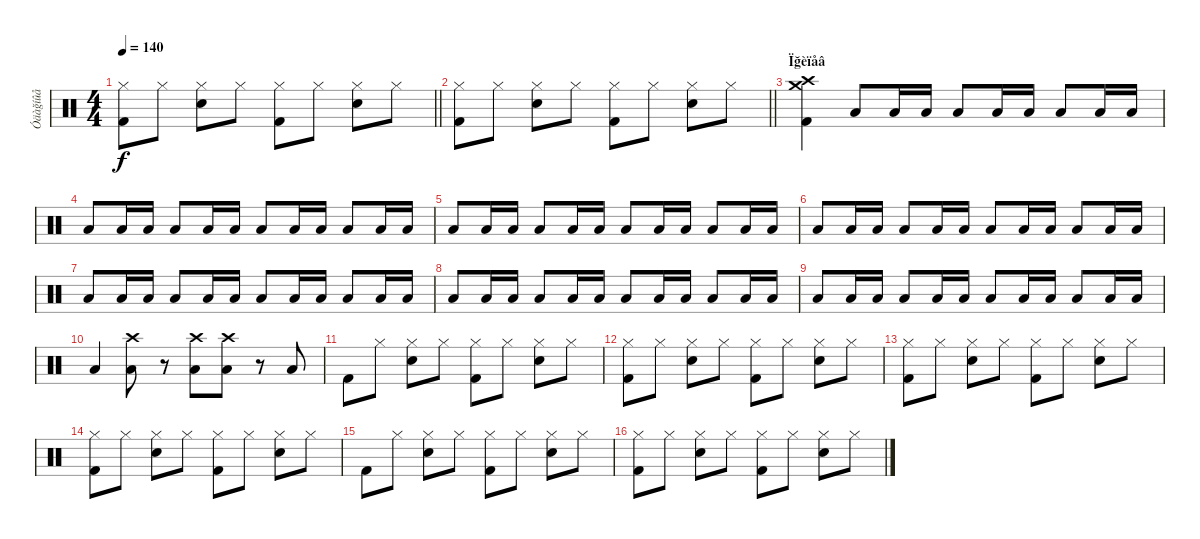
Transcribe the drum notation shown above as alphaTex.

\track ("Óäàğíûå" "Óäàğíûå") {instrument percussion}
\staff {score}
\articulation defaults
\ts (4 4)
\tempo 140
\clef neutral
\barLineRight lightlight
\ks c
("Hi-Hat (closed)" "Kick (hit) 2").8{dy f} "Hi-Hat (closed)".8 ("Hi-Hat (closed)" "Snare (hit) 2").8 "Hi-Hat (closed)".8 ("Hi-Hat (closed)" "Kick (hit) 2").8 "Hi-Hat (closed)".8 ("Hi-Hat (closed)" "Snare (hit) 2").8 "Hi-Hat (closed)".8 |
\barLineRight lightlight
("Hi-Hat (closed)" "Kick (hit) 2").8 "Hi-Hat (closed)".8 ("Hi-Hat (closed)" "Snare (hit) 2").8 "Hi-Hat (closed)".8 ("Hi-Hat (closed)" "Kick (hit) 2").8 "Hi-Hat (closed)".8 ("Hi-Hat (closed)" "Snare (hit) 2").8 "Hi-Hat (closed)".8 |
\section ("" "Ïğèïåâ")
("Crash high (hit)" "Kick (hit) 2" "Crash medium (hit)").4 "Low Tom (hit)".8 "Low Tom (hit)".16 "Low Tom (hit)".16 "Low Tom (hit)".8 "Low Tom (hit)".16 "Low Tom (hit)".16 "Low Tom (hit)".8 "Low Tom (hit)".16 "Low Tom (hit)".16 |
"Low Tom (hit)".8 "Low Tom (hit)".16 "Low Tom (hit)".16 "Low Tom (hit)".8 "Low Tom (hit)".16 "Low Tom (hit)".16 "Low Tom (hit)".8 "Low Tom (hit)".16 "Low Tom (hit)".16 "Low Tom (hit)".8 "Low Tom (hit)".16 "Low Tom (hit)".16 |
"Low Tom (hit)".8 "Low Tom (hit)".16 "Low Tom (hit)".16 "Low Tom (hit)".8 "Low Tom (hit)".16 "Low Tom (hit)".16 "Low Tom (hit)".8 "Low Tom (hit)".16 "Low Tom (hit)".16 "Low Tom (hit)".8 "Low Tom (hit)".16 "Low Tom (hit)".16 |
"Low Tom (hit)".8 "Low Tom (hit)".16 "Low Tom (hit)".16 "Low Tom (hit)".8 "Low Tom (hit)".16 "Low Tom (hit)".16 "Low Tom (hit)".8 "Low Tom (hit)".16 "Low Tom (hit)".16 "Low Tom (hit)".8 "Low Tom (hit)".16 "Low Tom (hit)".16 |
"Low Tom (hit)".8 "Low Tom (hit)".16 "Low Tom (hit)".16 "Low Tom (hit)".8 "Low Tom (hit)".16 "Low Tom (hit)".16 "Low Tom (hit)".8 "Low Tom (hit)".16 "Low Tom (hit)".16 "Low Tom (hit)".8 "Low Tom (hit)".16 "Low Tom (hit)".16 |
"Low Tom (hit)".8 "Low Tom (hit)".16 "Low Tom (hit)".16 "Low Tom (hit)".8 "Low Tom (hit)".16 "Low Tom (hit)".16 "Low Tom (hit)".8 "Low Tom (hit)".16 "Low Tom (hit)".16 "Low Tom (hit)".8 "Low Tom (hit)".16 "Low Tom (hit)".16 |
"Low Tom (hit)".8 "Low Tom (hit)".16 "Low Tom (hit)".16 "Low Tom (hit)".8 "Low Tom (hit)".16 "Low Tom (hit)".16 "Low Tom (hit)".8 "Low Tom (hit)".16 "Low Tom (hit)".16 "Low Tom (hit)".8 "Low Tom (hit)".16 "Low Tom (hit)".16 |
"Low Tom (hit)".4 ("Crash high (hit)" "Low Tom (hit)").8 r.8 ("Crash high (hit)" "Low Tom (hit)").8 ("Crash high (hit)" "Low Tom (hit)").8 r.8 "Low Tom (hit)".8 |
"Kick (hit) 2".8 "Hi-Hat (closed)".8 ("Hi-Hat (closed)" "Snare (hit) 2").8 "Hi-Hat (closed)".8 ("Hi-Hat (closed)" "Kick (hit) 2").8 "Hi-Hat (closed)".8 ("Hi-Hat (closed)" "Snare (hit) 2").8 "Hi-Hat (closed)".8 |
("Hi-Hat (closed)" "Kick (hit) 2").8 "Hi-Hat (closed)".8 ("Hi-Hat (closed)" "Snare (hit) 2").8 "Hi-Hat (closed)".8 ("Hi-Hat (closed)" "Kick (hit) 2").8 "Hi-Hat (closed)".8 ("Hi-Hat (closed)" "Snare (hit) 2").8 "Hi-Hat (closed)".8 |
("Hi-Hat (closed)" "Kick (hit) 2").8 "Hi-Hat (closed)".8 ("Hi-Hat (closed)" "Snare (hit) 2").8 "Hi-Hat (closed)".8 ("Hi-Hat (closed)" "Kick (hit) 2").8 "Hi-Hat (closed)".8 ("Hi-Hat (closed)" "Snare (hit) 2").8 "Hi-Hat (closed)".8 |
("Hi-Hat (closed)" "Kick (hit) 2").8 "Hi-Hat (closed)".8 ("Hi-Hat (closed)" "Snare (hit) 2").8 "Hi-Hat (closed)".8 ("Hi-Hat (closed)" "Kick (hit) 2").8 "Hi-Hat (closed)".8 ("Hi-Hat (closed)" "Snare (hit) 2").8 "Hi-Hat (closed)".8 |
"Kick (hit) 2".8 "Hi-Hat (closed)".8 ("Hi-Hat (closed)" "Snare (hit) 2").8 "Hi-Hat (closed)".8 ("Hi-Hat (closed)" "Kick (hit) 2").8 "Hi-Hat (closed)".8 ("Hi-Hat (closed)" "Snare (hit) 2").8 "Hi-Hat (closed)".8 |
("Hi-Hat (closed)" "Kick (hit) 2").8 "Hi-Hat (closed)".8 ("Hi-Hat (closed)" "Snare (hit) 2").8 "Hi-Hat (closed)".8 ("Hi-Hat (closed)" "Kick (hit) 2").8 "Hi-Hat (closed)".8 ("Hi-Hat (closed)" "Snare (hit) 2").8 "Hi-Hat (closed)".8
